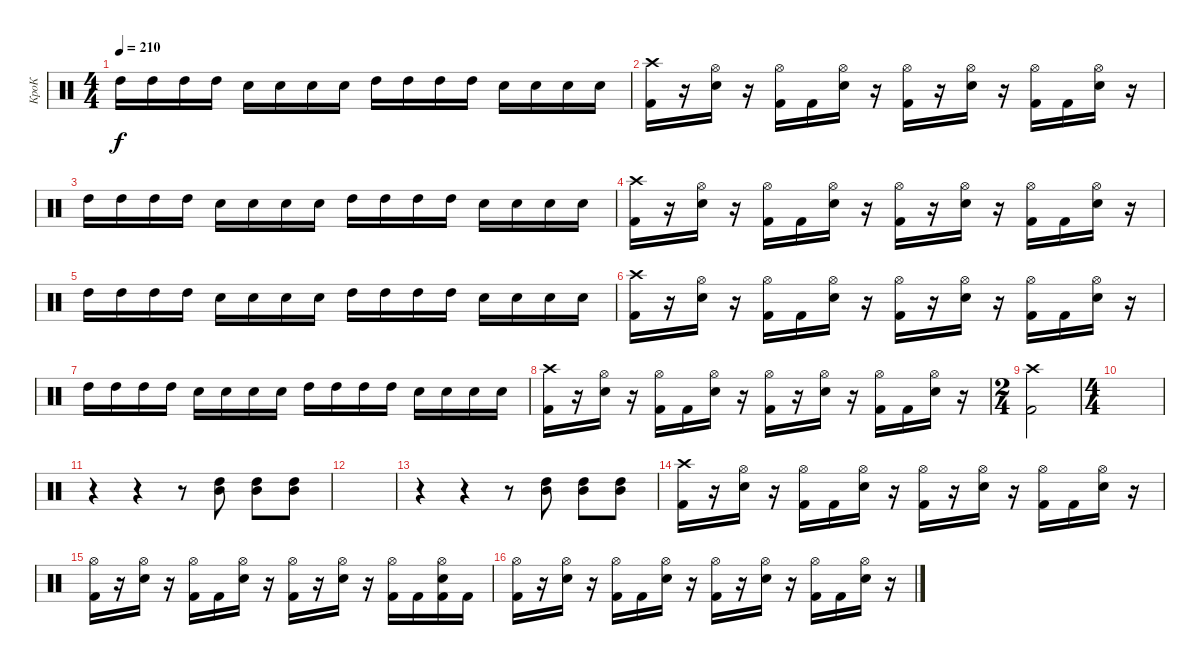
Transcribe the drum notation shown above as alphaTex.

\track ("КроК" "КроК") {instrument percussion}
\staff {score}
\articulation defaults
\ts (4 4)
\tempo 210
\clef neutral
\ks c "High Tom (hit)".16{dy f} "High Tom (hit)".16 "High Tom (hit)".16 "High Tom (hit)".16 "Electric Snare (hit)".16 "Electric Snare (hit)".16 "Electric Snare (hit)".16 "Electric Snare (hit)".16 "High Tom (hit)".16 "High Tom (hit)".16 "High Tom (hit)".16 "High Tom (hit)".16 "Electric Snare (hit)".16 "Electric Snare (hit)".16 "Electric Snare (hit)".16 "Electric Snare (hit)".16
|
("Crash high (hit)" "Kick (hit) 2").16 r.16 ("Hi-Hat (open)" "Electric Snare (hit)").16 r.16 ("Hi-Hat (open)" "Kick (hit) 2").16 "Kick (hit) 2".16 ("Hi-Hat (open)" "Electric Snare (hit)").16 r.16 ("Hi-Hat (open)" "Kick (hit) 2").16 r.16 ("Hi-Hat (open)" "Electric Snare (hit)").16 r.16 ("Hi-Hat (open)" "Kick (hit) 2").16 "Kick (hit) 2".16 ("Hi-Hat (open)" "Electric Snare (hit)").16 r.16 |
"High Tom (hit)".16 "High Tom (hit)".16 "High Tom (hit)".16 "High Tom (hit)".16 "Electric Snare (hit)".16 "Electric Snare (hit)".16 "Electric Snare (hit)".16 "Electric Snare (hit)".16 "High Tom (hit)".16 "High Tom (hit)".16 "High Tom (hit)".16 "High Tom (hit)".16 "Electric Snare (hit)".16 "Electric Snare (hit)".16 "Electric Snare (hit)".16 "Electric Snare (hit)".16 |
("Crash high (hit)" "Kick (hit) 2").16 r.16 ("Hi-Hat (open)" "Electric Snare (hit)").16 r.16 ("Hi-Hat (open)" "Kick (hit) 2").16 "Kick (hit) 2".16 ("Hi-Hat (open)" "Electric Snare (hit)").16 r.16 ("Hi-Hat (open)" "Kick (hit) 2").16 r.16 ("Hi-Hat (open)" "Electric Snare (hit)").16 r.16 ("Hi-Hat (open)" "Kick (hit) 2").16 "Kick (hit) 2".16 ("Hi-Hat (open)" "Electric Snare (hit)").16 r.16 |
"High Tom (hit)".16 "High Tom (hit)".16 "High Tom (hit)".16 "High Tom (hit)".16 "Electric Snare (hit)".16 "Electric Snare (hit)".16 "Electric Snare (hit)".16 "Electric Snare (hit)".16 "High Tom (hit)".16 "High Tom (hit)".16 "High Tom (hit)".16 "High Tom (hit)".16 "Electric Snare (hit)".16 "Electric Snare (hit)".16 "Electric Snare (hit)".16 "Electric Snare (hit)".16 |
("Crash high (hit)" "Kick (hit) 2").16 r.16 ("Hi-Hat (open)" "Electric Snare (hit)").16 r.16 ("Hi-Hat (open)" "Kick (hit) 2").16 "Kick (hit) 2".16 ("Hi-Hat (open)" "Electric Snare (hit)").16 r.16 ("Hi-Hat (open)" "Kick (hit) 2").16 r.16 ("Hi-Hat (open)" "Electric Snare (hit)").16 r.16 ("Hi-Hat (open)" "Kick (hit) 2").16 "Kick (hit) 2".16 ("Hi-Hat (open)" "Electric Snare (hit)").16 r.16 |
"High Tom (hit)".16 "High Tom (hit)".16 "High Tom (hit)".16 "High Tom (hit)".16 "Electric Snare (hit)".16 "Electric Snare (hit)".16 "Electric Snare (hit)".16 "Electric Snare (hit)".16 "High Tom (hit)".16 "High Tom (hit)".16 "High Tom (hit)".16 "High Tom (hit)".16 "Electric Snare (hit)".16 "Electric Snare (hit)".16 "Electric Snare (hit)".16 "Electric Snare (hit)".16 |
("Crash high (hit)" "Kick (hit) 2").16 r.16 ("Hi-Hat (open)" "Electric Snare (hit)").16 r.16 ("Hi-Hat (open)" "Kick (hit) 2").16 "Kick (hit) 2".16 ("Hi-Hat (open)" "Electric Snare (hit)").16 r.16 ("Hi-Hat (open)" "Kick (hit) 2").16 r.16 ("Hi-Hat (open)" "Electric Snare (hit)").16 r.16 ("Hi-Hat (open)" "Kick (hit) 2").16 "Kick (hit) 2".16 ("Hi-Hat (open)" "Electric Snare (hit)").16 r.16 |
\ts (2 4)
("Crash high (hit)" "Kick (hit) 2").2 |
\ts (4 4)
|
r.4 r.4 r.8 ("Mid Tom (hit)" "High Tom (hit)").8 ("Mid Tom (hit)" "High Tom (hit)").8 ("Mid Tom (hit)" "High Tom (hit)").8 |
|
r.4 r.4 r.8 ("Mid Tom (hit)" "High Tom (hit)").8 ("Mid Tom (hit)" "High Tom (hit)").8 ("Mid Tom (hit)" "High Tom (hit)").8 |
("Crash high (hit)" "Kick (hit) 2").16 r.16 ("Hi-Hat (open)" "Electric Snare (hit)").16 r.16 ("Hi-Hat (open)" "Kick (hit) 2").16 "Kick (hit) 2".16 ("Hi-Hat (open)" "Electric Snare (hit)").16 r.16 ("Hi-Hat (open)" "Kick (hit) 2").16 r.16 ("Hi-Hat (open)" "Electric Snare (hit)").16 r.16 ("Hi-Hat (open)" "Kick (hit) 2").16 "Kick (hit) 2".16 ("Hi-Hat (open)" "Electric Snare (hit)").16 r.16 |
("Hi-Hat (open)" "Kick (hit) 2").16 r.16 ("Hi-Hat (open)" "Electric Snare (hit)").16 r.16 ("Hi-Hat (open)" "Kick (hit) 2").16 "Kick (hit) 2".16 ("Hi-Hat (open)" "Electric Snare (hit)").16 r.16 ("Hi-Hat (open)" "Kick (hit) 2").16 r.16 ("Hi-Hat (open)" "Electric Snare (hit)").16 r.16 ("Hi-Hat (open)" "Kick (hit) 2").16 "Kick (hit) 2".16 ("Hi-Hat (open)" "Electric Snare (hit)" "Kick (hit) 2").16 "Kick (hit) 2".16 |
("Hi-Hat (open)" "Kick (hit) 2").16 r.16 ("Hi-Hat (open)" "Electric Snare (hit)").16 r.16 ("Hi-Hat (open)" "Kick (hit) 2").16 "Kick (hit) 2".16 ("Hi-Hat (open)" "Electric Snare (hit)").16 r.16 ("Hi-Hat (open)" "Kick (hit) 2").16 r.16 ("Hi-Hat (open)" "Electric Snare (hit)").16 r.16 ("Hi-Hat (open)" "Kick (hit) 2").16 "Kick (hit) 2".16 ("Hi-Hat (open)" "Electric Snare (hit)").16 r.16
